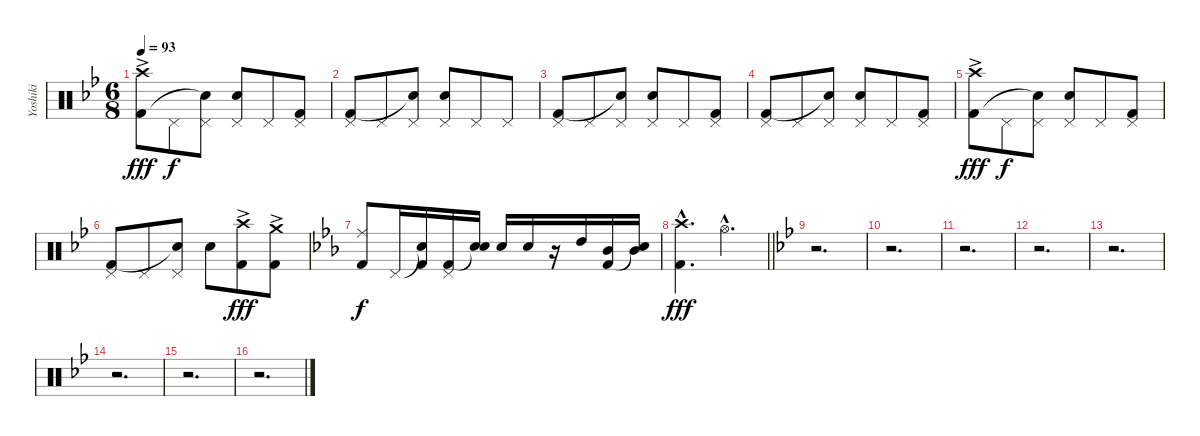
\track ("Yoshiki" "Yoshiki") {instrument percussion}
\staff {score}
\articulation defaults
\ts (6 8)
\tempo 93
\clef neutral
\ks bb
("Crash high (hit)"{ac} "Kick (hit) 2"{ac}).8{dy fff} "Pedal Hi-Hat (hit)".8{dy f} ("Pedal Hi-Hat (hit)" "Snare (hit)"{t}).8 ("Pedal Hi-Hat (hit)" "Snare (hit) 2").8 "Pedal Hi-Hat (hit)".8 ("Pedal Hi-Hat (hit)" "Kick (hit) 2").8 |
("Pedal Hi-Hat (hit)" "Kick (hit) 2").8 "Pedal Hi-Hat (hit)".8 ("Pedal Hi-Hat (hit)" "Snare (hit)"{t}).8 ("Pedal Hi-Hat (hit)" "Snare (hit) 2").8 "Pedal Hi-Hat (hit)".8 "Pedal Hi-Hat (hit)".8 |
("Pedal Hi-Hat (hit)" "Kick (hit) 2").8 "Pedal Hi-Hat (hit)".8 ("Pedal Hi-Hat (hit)" "Snare (hit)"{t}).8 ("Pedal Hi-Hat (hit)" "Snare (hit) 2").8 "Pedal Hi-Hat (hit)".8 ("Pedal Hi-Hat (hit)" "Kick (hit) 2").8 |
("Pedal Hi-Hat (hit)" "Kick (hit) 2").8 "Pedal Hi-Hat (hit)".8 ("Pedal Hi-Hat (hit)" "Snare (hit)"{t}).8 ("Pedal Hi-Hat (hit)" "Snare (hit) 2").8 "Pedal Hi-Hat (hit)".8 ("Pedal Hi-Hat (hit)" "Kick (hit) 2").8 |
("Crash high (hit)"{ac} "Kick (hit) 2"{ac}).8{dy fff} "Pedal Hi-Hat (hit)".8{dy f} ("Pedal Hi-Hat (hit)" "Snare (hit)"{t}).8 ("Pedal Hi-Hat (hit)" "Snare (hit) 2").8 "Pedal Hi-Hat (hit)".8 ("Pedal Hi-Hat (hit)" "Kick (hit) 2").8 |
("Pedal Hi-Hat (hit)" "Kick (hit) 2").8 "Pedal Hi-Hat (hit)".8 ("Pedal Hi-Hat (hit)" "Snare (hit)"{t}).8 "Snare (hit) 2".8 ("Crash high (hit)"{ac} "Kick (hit) 2"{ac}).8{dy fff} ("Crash medium (hit)"{ac} "Kick (hit) 2"{ac}).8 |
\ks eb
("Ride (middle)" "Kick (hit) 2").8{dy f} "Pedal Hi-Hat (hit)".16 ("Snare (hit)"{t} "Kick (hit) 2").16 ("Pedal Hi-Hat (hit)" "Kick (hit) 2").16 ("Snare (hit) 2" "Snare (hit)"{t}).16 "Snare (hit) 2".16 "Snare (hit) 2".16 r.16 "High Tom (hit)".16 ("Mid Tom (hit)" "Kick (hit) 2").16 ("Mid Tom (hit)" "Snare (hit)"{t}).16 |
\barLineRight lightlight
("Crash high (hit)"{hac} "Kick (hit) 2"{hac}).4{d dy fff} "Hi-Hat (open)"{hac}.4{d} |
\ks bb
r.2{d} |
r.2{d} |
r.2{d} |
r.2{d} |
r.2{d} |
r.2{d} |
r.2{d} |
r.2{d}
